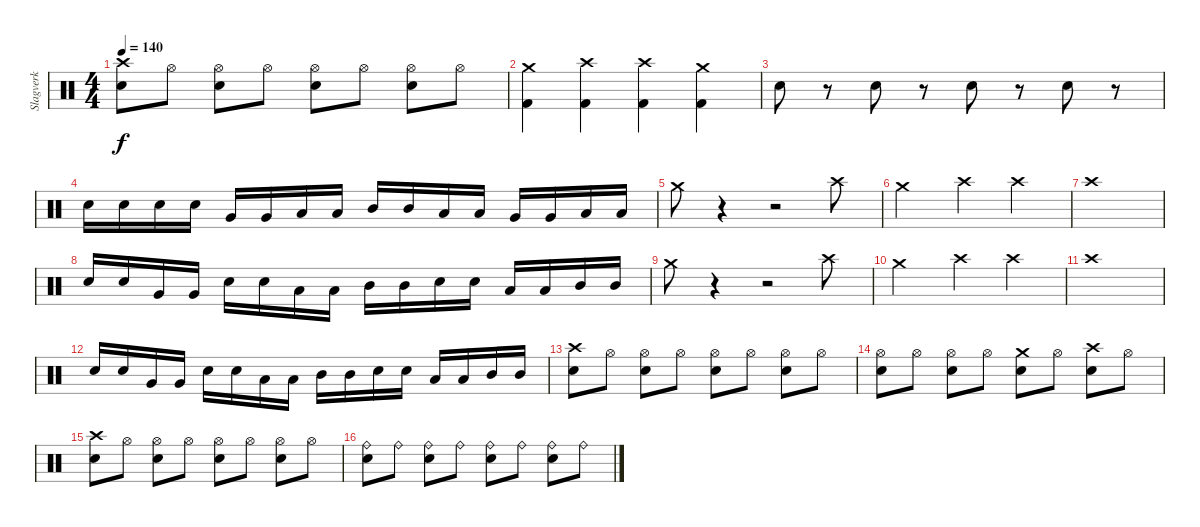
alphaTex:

\track ("Slagverk" "Slagverk") {instrument percussion}
\staff {score}
\articulation defaults
\ts (4 4)
\tempo 140
\clef neutral
\ks c
("Crash high (hit)" "Snare (hit) 2").8{dy f} "Hi-Hat (open)".8 ("Hi-Hat (open)" "Snare (hit) 2").8 "Hi-Hat (open)".8 ("Hi-Hat (open)" "Snare (hit) 2").8 "Hi-Hat (open)".8 ("Hi-Hat (open)" "Snare (hit) 2").8 "Hi-Hat (open)".8 |
("Kick (hit) 2" "Crash medium (hit)").4 ("Kick (hit) 2" "Crash high (hit)").4 ("Kick (hit) 2" "Crash high (hit)").4 ("Kick (hit) 2" "Crash medium (hit)").4 |
"Snare (hit) 2".8 r.8 "Snare (hit) 2".8 r.8 "Snare (hit) 2".8 r.8 "Snare (hit) 2".8 r.8 |
"Snare (hit) 2".16 "Snare (hit) 2".16 "Snare (hit) 2".16 "Snare (hit) 2".16 "Very Low Tom (hit)".16 "Very Low Tom (hit)".16 "Low Tom (hit)".16 "Low Tom (hit)".16 "Mid Tom (hit)".16 "Mid Tom (hit)".16 "Low Tom (hit)".16 "Low Tom (hit)".16 "Very Low Tom (hit)".16 "Very Low Tom (hit)".16 "Low Floor Tom (hit)".16 "Low Floor Tom (hit)".16 |
"Crash medium (hit)".8 r.4 r.2 "Crash high (hit)".8 |
"Crash medium (hit)".2 "Crash high (hit)".4 "Crash high (hit)".4 |
"Crash high (hit)".1 |
"Snare (hit) 2".16 "Snare (hit) 2".16 "Very Low Tom (hit)".16 "Very Low Tom (hit)".16 "Snare (hit) 2".16 "Snare (hit) 2".16 "Low Tom (hit)".16 "Low Tom (hit)".16 "Mid Tom (hit)".16 "Mid Tom (hit)".16 "Snare (hit) 2".16 "Snare (hit) 2".16 "Low Tom (hit)".16 "Low Tom (hit)".16 "Mid Tom (hit)".16 "Mid Tom (hit)".16 |
"Crash medium (hit)".8 r.4 r.2 "Crash high (hit)".8 |
"Crash medium (hit)".2 "Crash high (hit)".4 "Crash high (hit)".4 |
"Crash high (hit)".1 |
"Snare (hit) 2".16 "Snare (hit) 2".16 "Very Low Tom (hit)".16 "Very Low Tom (hit)".16 "Snare (hit) 2".16 "Snare (hit) 2".16 "Low Tom (hit)".16 "Low Tom (hit)".16 "Mid Tom (hit)".16 "Mid Tom (hit)".16 "Snare (hit) 2".16 "Snare (hit) 2".16 "Low Tom (hit)".16 "Low Tom (hit)".16 "Mid Tom (hit)".16 "Mid Tom (hit)".16 |
("Crash high (hit)" "Snare (hit) 2").8 "Hi-Hat (open)".8 ("Hi-Hat (open)" "Snare (hit) 2").8 "Hi-Hat (open)".8 ("Hi-Hat (open)" "Snare (hit) 2").8 "Hi-Hat (open)".8 ("Hi-Hat (open)" "Snare (hit) 2").8 "Hi-Hat (open)".8 |
("Hi-Hat (open)" "Snare (hit) 2").8 "Hi-Hat (open)".8 ("Hi-Hat (open)" "Snare (hit) 2").8 "Hi-Hat (open)".8 ("Crash medium (hit)" "Snare (hit) 2").8 "Hi-Hat (open)".8 ("Crash high (hit)" "Snare (hit) 2").8 "Hi-Hat (open)".8 |
("Crash high (hit)" "Snare (hit) 2").8 "Hi-Hat (open)".8 ("Hi-Hat (open)" "Snare (hit) 2").8 "Hi-Hat (open)".8 ("Hi-Hat (open)" "Snare (hit) 2").8 "Hi-Hat (open)".8 ("Hi-Hat (open)" "Snare (hit) 2").8 "Hi-Hat (open)".8 |
("Ride (bell)" "Snare (hit) 2").8 "Ride (bell)".8 ("Ride (bell)" "Snare (hit) 2").8 "Ride (bell)".8 ("Ride (bell)" "Snare (hit) 2").8 "Ride (bell)".8 ("Ride (bell)" "Snare (hit) 2").8 "Ride (bell)".8
